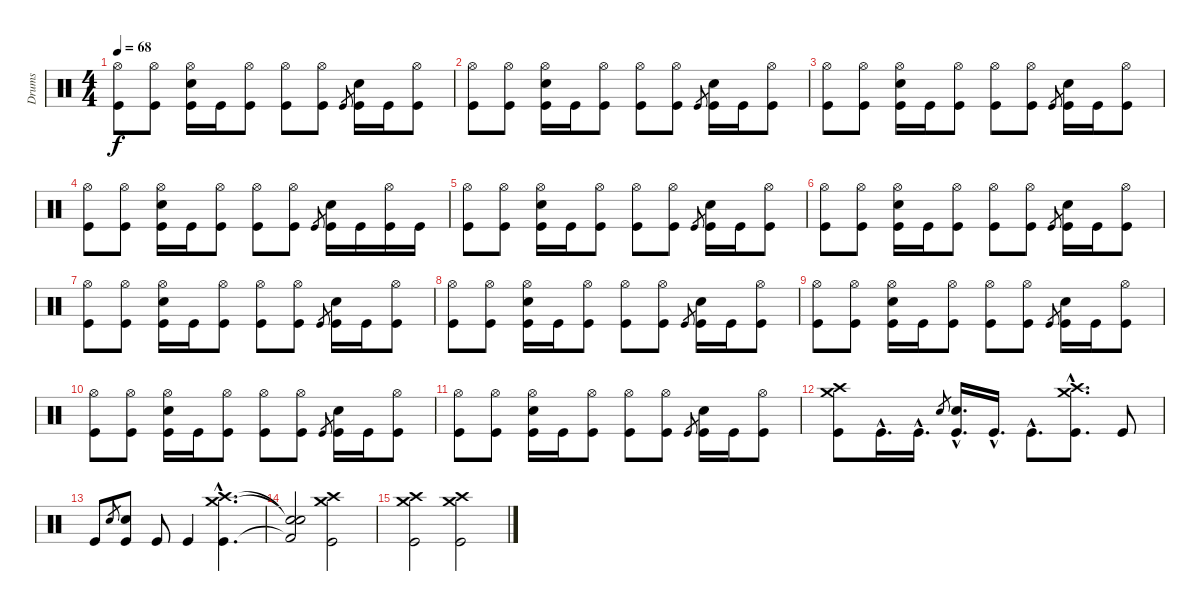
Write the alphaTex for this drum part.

\track ("Drums" "Drums") {instrument percussion}
\staff {score}
\articulation defaults
\ts (4 4)
\tempo 68
\clef neutral
\ks c
("Hi-Hat (open)" "Kick (hit)").8{dy f} ("Hi-Hat (open)" "Kick (hit)").8 ("Hi-Hat (open)" "Snare (hit) 2" "Kick (hit)").16 "Kick (hit)".16 ("Hi-Hat (open)" "Kick (hit)").8 ("Hi-Hat (open)" "Kick (hit)").8 ("Hi-Hat (open)" "Kick (hit)").8 "Kick (hit)".8{gr} ("Snare (hit) 2" "Kick (hit)").16 "Kick (hit)".16 ("Hi-Hat (open)" "Kick (hit)").8 |
("Hi-Hat (open)" "Kick (hit)").8 ("Hi-Hat (open)" "Kick (hit)").8 ("Hi-Hat (open)" "Snare (hit) 2" "Kick (hit)").16 "Kick (hit)".16 ("Hi-Hat (open)" "Kick (hit)").8 ("Hi-Hat (open)" "Kick (hit)").8 ("Hi-Hat (open)" "Kick (hit)").8 "Kick (hit)".8{gr} ("Snare (hit) 2" "Kick (hit)").16 "Kick (hit)".16 ("Hi-Hat (open)" "Kick (hit)").8 |
("Hi-Hat (open)" "Kick (hit)").8 ("Hi-Hat (open)" "Kick (hit)").8 ("Hi-Hat (open)" "Snare (hit) 2" "Kick (hit)").16 "Kick (hit)".16 ("Hi-Hat (open)" "Kick (hit)").8 ("Hi-Hat (open)" "Kick (hit)").8 ("Hi-Hat (open)" "Kick (hit)").8 "Kick (hit)".8{gr} ("Snare (hit) 2" "Kick (hit)").16 "Kick (hit)".16 ("Hi-Hat (open)" "Kick (hit)").8 |
("Hi-Hat (open)" "Kick (hit)").8 ("Hi-Hat (open)" "Kick (hit)").8 ("Hi-Hat (open)" "Snare (hit) 2" "Kick (hit)").16 "Kick (hit)".16 ("Hi-Hat (open)" "Kick (hit)").8 ("Hi-Hat (open)" "Kick (hit)").8 ("Hi-Hat (open)" "Kick (hit)").8 "Kick (hit)".8{gr} ("Snare (hit) 2" "Kick (hit)").16 "Kick (hit)".16 ("Hi-Hat (open)" "Kick (hit)").16 "Kick (hit)".16 |
("Hi-Hat (open)" "Kick (hit)").8 ("Hi-Hat (open)" "Kick (hit)").8 ("Hi-Hat (open)" "Snare (hit) 2" "Kick (hit)").16 "Kick (hit)".16 ("Hi-Hat (open)" "Kick (hit)").8 ("Hi-Hat (open)" "Kick (hit)").8 ("Hi-Hat (open)" "Kick (hit)").8 "Kick (hit)".8{gr} ("Snare (hit) 2" "Kick (hit)").16 "Kick (hit)".16 ("Hi-Hat (open)" "Kick (hit)").8 |
("Hi-Hat (open)" "Kick (hit)").8 ("Hi-Hat (open)" "Kick (hit)").8 ("Hi-Hat (open)" "Snare (hit) 2" "Kick (hit)").16 "Kick (hit)".16 ("Hi-Hat (open)" "Kick (hit)").8 ("Hi-Hat (open)" "Kick (hit)").8 ("Hi-Hat (open)" "Kick (hit)").8 "Kick (hit)".8{gr} ("Snare (hit) 2" "Kick (hit)").16 "Kick (hit)".16 ("Hi-Hat (open)" "Kick (hit)").8 |
("Hi-Hat (open)" "Kick (hit)").8 ("Hi-Hat (open)" "Kick (hit)").8 ("Hi-Hat (open)" "Snare (hit) 2" "Kick (hit)").16 "Kick (hit)".16 ("Hi-Hat (open)" "Kick (hit)").8 ("Hi-Hat (open)" "Kick (hit)").8 ("Hi-Hat (open)" "Kick (hit)").8 "Kick (hit)".8{gr} ("Snare (hit) 2" "Kick (hit)").16 "Kick (hit)".16 ("Hi-Hat (open)" "Kick (hit)").8 |
("Hi-Hat (open)" "Kick (hit)").8 ("Hi-Hat (open)" "Kick (hit)").8 ("Hi-Hat (open)" "Snare (hit) 2" "Kick (hit)").16 "Kick (hit)".16 ("Hi-Hat (open)" "Kick (hit)").8 ("Hi-Hat (open)" "Kick (hit)").8 ("Hi-Hat (open)" "Kick (hit)").8 "Kick (hit)".8{gr} ("Snare (hit) 2" "Kick (hit)").16 "Kick (hit)".16 ("Hi-Hat (open)" "Kick (hit)").8 |
("Hi-Hat (open)" "Kick (hit)").8 ("Hi-Hat (open)" "Kick (hit)").8 ("Hi-Hat (open)" "Snare (hit) 2" "Kick (hit)").16 "Kick (hit)".16 ("Hi-Hat (open)" "Kick (hit)").8 ("Hi-Hat (open)" "Kick (hit)").8 ("Hi-Hat (open)" "Kick (hit)").8 "Kick (hit)".8{gr} ("Snare (hit) 2" "Kick (hit)").16 "Kick (hit)".16 ("Hi-Hat (open)" "Kick (hit)").8 |
("Hi-Hat (open)" "Kick (hit)").8 ("Hi-Hat (open)" "Kick (hit)").8 ("Hi-Hat (open)" "Snare (hit) 2" "Kick (hit)").16 "Kick (hit)".16 ("Hi-Hat (open)" "Kick (hit)").8 ("Hi-Hat (open)" "Kick (hit)").8 ("Hi-Hat (open)" "Kick (hit)").8 "Kick (hit)".8{gr} ("Snare (hit) 2" "Kick (hit)").16 "Kick (hit)".16 ("Hi-Hat (open)" "Kick (hit)").8 |
("Hi-Hat (open)" "Kick (hit)").8 ("Hi-Hat (open)" "Kick (hit)").8 ("Hi-Hat (open)" "Snare (hit) 2" "Kick (hit)").16 "Kick (hit)".16 ("Hi-Hat (open)" "Kick (hit)").8 ("Hi-Hat (open)" "Kick (hit)").8 ("Hi-Hat (open)" "Kick (hit)").8 "Kick (hit)".8{gr} ("Snare (hit) 2" "Kick (hit)").16 "Kick (hit)".16 ("Hi-Hat (open)" "Kick (hit)").8 |
("Crash medium (hit)" "Crash high (hit)" "Kick (hit)").8 "Kick (hit)"{hac}.16{d} "Kick (hit)"{hac}.16{d} "Snare (hit) 2".8{gr} ("Snare (hit) 2"{hac} "Kick (hit)"{hac}).16{d} "Kick (hit)"{hac}.16{d} "Kick (hit)"{hac}.8{d} ("Crash medium (hit)"{hac} "Crash high (hit)"{hac} "Kick (hit)"{hac}).8{d} "Kick (hit)".8 |
"Kick (hit)".8 "Snare (hit) 2".8{gr} ("Snare (hit) 2" "Kick (hit)").8 "Kick (hit)".8 "Kick (hit)".4 ("Crash medium (hit)"{hac} "Crash high (hit)"{hac} "Kick (hit)"{hac}).4{d} |
("Snare (hit)"{t} "Snare (hit)"{t} "Kick (hit) 2"{t}).2 ("Crash medium (hit)" "Crash high (hit)" "Kick (hit)").2 |
("Crash medium (hit)" "Crash high (hit)" "Kick (hit)").2 ("Crash medium (hit)" "Crash high (hit)" "Kick (hit)").2
